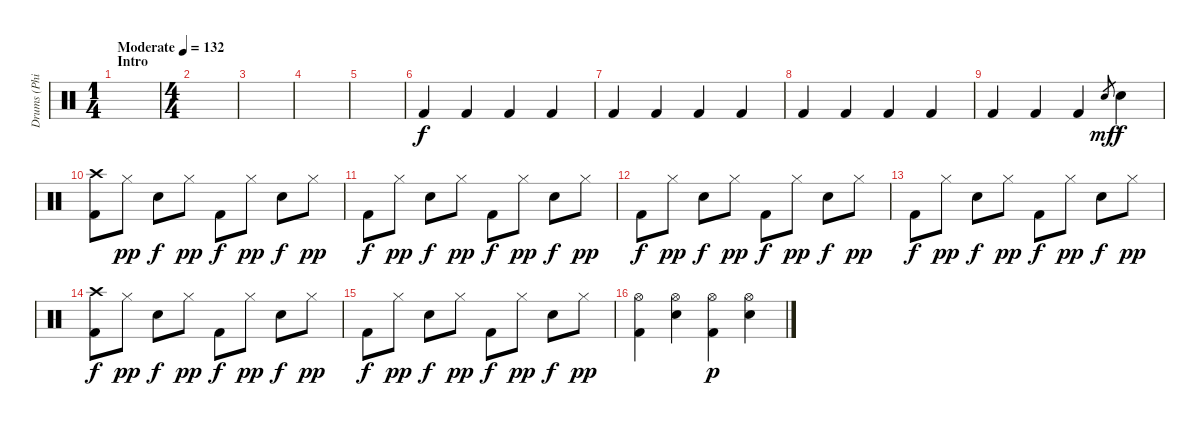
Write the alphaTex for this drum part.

\track ("Drums (Phil Rudd)" "Drums (Phi") {instrument percussion}
\staff {score}
\articulation defaults
\ts (1 4)
\section ("" "Intro")
\tempo (132 "Moderate")
\clef neutral
\ks c
|
\ts (4 4)
|
|
|
|
"Kick (hit) 2".4 "Kick (hit) 2".4 "Kick (hit) 2".4 "Kick (hit) 2".4 |
"Kick (hit) 2".4 "Kick (hit) 2".4 "Kick (hit) 2".4 "Kick (hit) 2".4 |
"Kick (hit) 2".4 "Kick (hit) 2".4 "Kick (hit) 2".4 "Kick (hit) 2".4 |
"Kick (hit) 2".4 "Kick (hit) 2".4 "Kick (hit) 2".4 "Snare (hit) 2".8{gr dy mf} "Snare (hit) 2".4{dy f} |
("Crash high (hit)" "Kick (hit) 2").8 "Hi-Hat (closed)".8{dy pp} "Snare (hit) 2".8{dy f} "Hi-Hat (closed)".8{dy pp} "Kick (hit) 2".8{dy f} "Hi-Hat (closed)".8{dy pp} "Snare (hit) 2".8{dy f} "Hi-Hat (closed)".8{dy pp} |
"Kick (hit) 2".8{dy f} "Hi-Hat (closed)".8{dy pp} "Snare (hit) 2".8{dy f} "Hi-Hat (closed)".8{dy pp} "Kick (hit) 2".8{dy f} "Hi-Hat (closed)".8{dy pp} "Snare (hit) 2".8{dy f} "Hi-Hat (closed)".8{dy pp} |
"Kick (hit) 2".8{dy f} "Hi-Hat (closed)".8{dy pp} "Snare (hit) 2".8{dy f} "Hi-Hat (closed)".8{dy pp} "Kick (hit) 2".8{dy f} "Hi-Hat (closed)".8{dy pp} "Snare (hit) 2".8{dy f} "Hi-Hat (closed)".8{dy pp} |
"Kick (hit) 2".8{dy f} "Hi-Hat (closed)".8{dy pp} "Snare (hit) 2".8{dy f} "Hi-Hat (closed)".8{dy pp} "Kick (hit) 2".8{dy f} "Hi-Hat (closed)".8{dy pp} "Snare (hit) 2".8{dy f} "Hi-Hat (closed)".8{dy pp} |
("Crash high (hit)" "Kick (hit) 2").8{dy f} "Hi-Hat (closed)".8{dy pp} "Snare (hit) 2".8{dy f} "Hi-Hat (closed)".8{dy pp} "Kick (hit) 2".8{dy f} "Hi-Hat (closed)".8{dy pp} "Snare (hit) 2".8{dy f} "Hi-Hat (closed)".8{dy pp} |
"Kick (hit) 2".8{dy f} "Hi-Hat (closed)".8{dy pp} "Snare (hit) 2".8{dy f} "Hi-Hat (closed)".8{dy pp} "Kick (hit) 2".8{dy f} "Hi-Hat (closed)".8{dy pp} "Snare (hit) 2".8{dy f} "Hi-Hat (closed)".8{dy pp} |
("Hi-Hat (open)" "Kick (hit) 2").4 ("Hi-Hat (open)" "Snare (hit) 2").4 ("Hi-Hat (open)" "Kick (hit) 2").4{dy p} ("Hi-Hat (open)" "Snare (hit) 2").4
